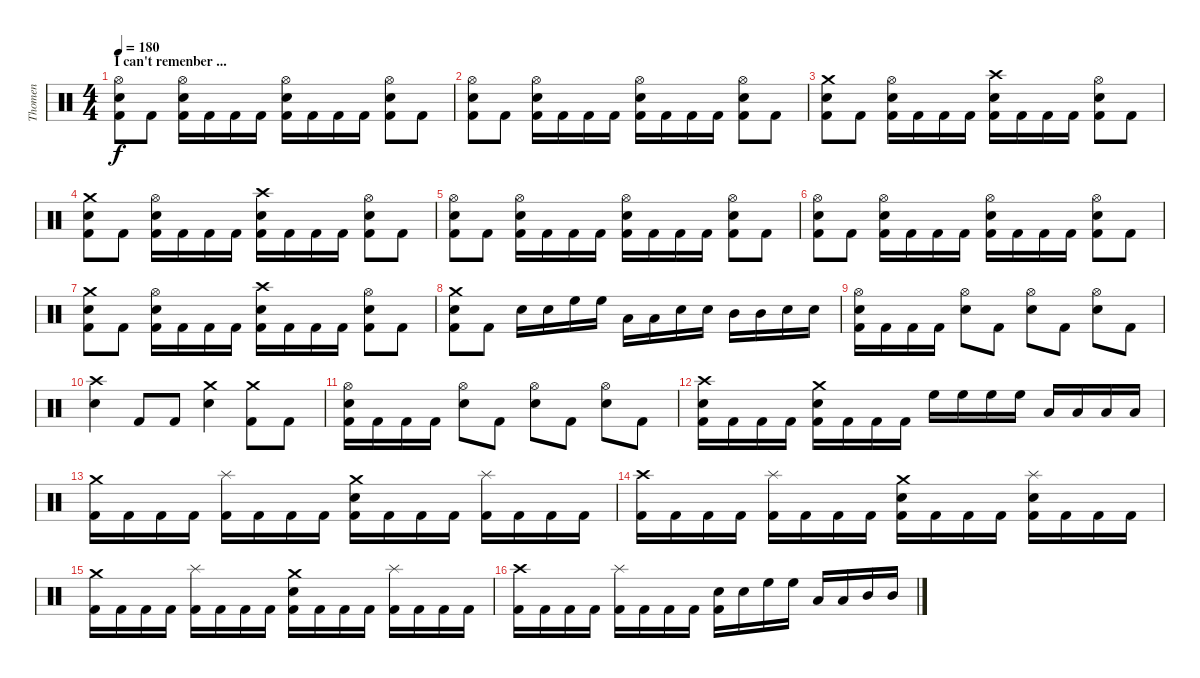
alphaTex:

\track ("Thomen" "Thomen") {instrument percussion}
\staff {score}
\articulation defaults
\ts (4 4)
\section ("" "I can't remenber ...")
\tempo 180
\clef neutral
\ks c
("Kick (hit) 2" "Electric Snare (hit)" "Hi-Hat (open)").8{dy f} "Kick (hit) 2".8 ("Kick (hit) 2" "Electric Snare (hit)" "Hi-Hat (open)").16 "Kick (hit) 2".16 "Kick (hit) 2".16 "Kick (hit) 2".16 ("Kick (hit) 2" "Electric Snare (hit)" "Hi-Hat (open)").16 "Kick (hit) 2".16 "Kick (hit) 2".16 "Kick (hit) 2".16 ("Kick (hit) 2" "Electric Snare (hit)" "Hi-Hat (open)").8 "Kick (hit) 2".8 |
("Kick (hit) 2" "Electric Snare (hit)" "Hi-Hat (open)").8 "Kick (hit) 2".8 ("Kick (hit) 2" "Electric Snare (hit)" "Hi-Hat (open)").16 "Kick (hit) 2".16 "Kick (hit) 2".16 "Kick (hit) 2".16 ("Kick (hit) 2" "Electric Snare (hit)" "Hi-Hat (open)").16 "Kick (hit) 2".16 "Kick (hit) 2".16 "Kick (hit) 2".16 ("Kick (hit) 2" "Electric Snare (hit)" "Hi-Hat (open)").8 "Kick (hit) 2".8 |
("Kick (hit) 2" "Electric Snare (hit)" "Crash medium (hit)").8 "Kick (hit) 2".8 ("Kick (hit) 2" "Electric Snare (hit)" "Hi-Hat (open)").16 "Kick (hit) 2".16 "Kick (hit) 2".16 "Kick (hit) 2".16 ("Kick (hit) 2" "Electric Snare (hit)" "Crash high (hit)").16 "Kick (hit) 2".16 "Kick (hit) 2".16 "Kick (hit) 2".16 ("Kick (hit) 2" "Electric Snare (hit)" "Hi-Hat (open)").8 "Kick (hit) 2".8 |
("Kick (hit) 2" "Electric Snare (hit)" "Crash medium (hit)").8 "Kick (hit) 2".8 ("Kick (hit) 2" "Electric Snare (hit)" "Hi-Hat (open)").16 "Kick (hit) 2".16 "Kick (hit) 2".16 "Kick (hit) 2".16 ("Kick (hit) 2" "Electric Snare (hit)" "Crash high (hit)").16 "Kick (hit) 2".16 "Kick (hit) 2".16 "Kick (hit) 2".16 ("Kick (hit) 2" "Electric Snare (hit)" "Hi-Hat (open)").8 "Kick (hit) 2".8 |
("Kick (hit) 2" "Electric Snare (hit)" "Hi-Hat (open)").8 "Kick (hit) 2".8 ("Kick (hit) 2" "Electric Snare (hit)" "Hi-Hat (open)").16 "Kick (hit) 2".16 "Kick (hit) 2".16 "Kick (hit) 2".16 ("Kick (hit) 2" "Electric Snare (hit)" "Hi-Hat (open)").16 "Kick (hit) 2".16 "Kick (hit) 2".16 "Kick (hit) 2".16 ("Kick (hit) 2" "Electric Snare (hit)" "Hi-Hat (open)").8 "Kick (hit) 2".8 |
("Kick (hit) 2" "Electric Snare (hit)" "Hi-Hat (open)").8 "Kick (hit) 2".8 ("Kick (hit) 2" "Electric Snare (hit)" "Hi-Hat (open)").16 "Kick (hit) 2".16 "Kick (hit) 2".16 "Kick (hit) 2".16 ("Kick (hit) 2" "Electric Snare (hit)" "Hi-Hat (open)").16 "Kick (hit) 2".16 "Kick (hit) 2".16 "Kick (hit) 2".16 ("Kick (hit) 2" "Electric Snare (hit)" "Hi-Hat (open)").8 "Kick (hit) 2".8 |
("Kick (hit) 2" "Electric Snare (hit)" "Crash medium (hit)").8 "Kick (hit) 2".8 ("Kick (hit) 2" "Electric Snare (hit)" "Hi-Hat (open)").16 "Kick (hit) 2".16 "Kick (hit) 2".16 "Kick (hit) 2".16 ("Kick (hit) 2" "Electric Snare (hit)" "Crash high (hit)").16 "Kick (hit) 2".16 "Kick (hit) 2".16 "Kick (hit) 2".16 ("Kick (hit) 2" "Electric Snare (hit)" "Hi-Hat (open)").8 "Kick (hit) 2".8 |
("Kick (hit) 2" "Electric Snare (hit)" "Crash medium (hit)").8 "Kick (hit) 2".8 "Electric Snare (hit)".16 "Electric Snare (hit)".16 "High Floor Tom (hit)".16 "High Floor Tom (hit)".16 "Low Tom (hit)".16 "Low Tom (hit)".16 "Electric Snare (hit)".16 "Electric Snare (hit)".16 "Mid Tom (hit)".16 "Mid Tom (hit)".16 "Electric Snare (hit)".16 "Electric Snare (hit)".16 |
("Kick (hit) 2" "Electric Snare (hit)" "Hi-Hat (open)").16 "Kick (hit) 2".16 "Kick (hit) 2".16 "Kick (hit) 2".16 ("Electric Snare (hit)" "Hi-Hat (open)").8 "Kick (hit) 2".8 ("Electric Snare (hit)" "Hi-Hat (open)").8 "Kick (hit) 2".8 ("Electric Snare (hit)" "Hi-Hat (open)").8 "Kick (hit) 2".8 |
("Electric Snare (hit)" "Crash high (hit)").4 "Kick (hit) 2".8 "Kick (hit) 2".8 ("Electric Snare (hit)" "Crash medium (hit)").4 ("Kick (hit) 2" "Crash medium (hit)").8 "Kick (hit) 2".8 |
("Kick (hit) 2" "Electric Snare (hit)" "Hi-Hat (open)").16 "Kick (hit) 2".16 "Kick (hit) 2".16 "Kick (hit) 2".16 ("Electric Snare (hit)" "Hi-Hat (open)").8 "Kick (hit) 2".8 ("Electric Snare (hit)" "Hi-Hat (open)").8 "Kick (hit) 2".8 ("Electric Snare (hit)" "Hi-Hat (open)").8 "Kick (hit) 2".8 |
("Kick (hit) 2" "Electric Snare (hit)" "Crash high (hit)").16 "Kick (hit) 2".16 "Kick (hit) 2".16 "Kick (hit) 2".16 ("Kick (hit) 2" "Electric Snare (hit)" "Crash medium (hit)").16 "Kick (hit) 2".16 "Kick (hit) 2".16 "Kick (hit) 2".16 "High Floor Tom (hit)".16 "High Floor Tom (hit)".16 "High Floor Tom (hit)".16 "High Floor Tom (hit)".16 "Low Tom (hit)".16 "Low Tom (hit)".16 "Low Tom (hit)".16 "Low Tom (hit)".16 |
("Kick (hit) 2" "Crash medium (hit)").16 "Kick (hit) 2".16 "Kick (hit) 2".16 "Kick (hit) 2".16 ("Kick (hit) 2" "Splash (hit)").16 "Kick (hit) 2".16 "Kick (hit) 2".16 "Kick (hit) 2".16 ("Kick (hit) 2" "Electric Snare (hit)" "Crash medium (hit)").16 "Kick (hit) 2".16 "Kick (hit) 2".16 "Kick (hit) 2".16 ("Kick (hit) 2" "Splash (hit)").16 "Kick (hit) 2".16 "Kick (hit) 2".16 "Kick (hit) 2".16 |
("Kick (hit) 2" "Crash high (hit)").16 "Kick (hit) 2".16 "Kick (hit) 2".16 "Kick (hit) 2".16 ("Kick (hit) 2" "Splash (hit)").16 "Kick (hit) 2".16 "Kick (hit) 2".16 "Kick (hit) 2".16 ("Kick (hit) 2" "Electric Snare (hit)" "Crash medium (hit)").16 "Kick (hit) 2".16 "Kick (hit) 2".16 "Kick (hit) 2".16 ("Kick (hit) 2" "Electric Snare (hit)" "Splash (hit)").16 "Kick (hit) 2".16 "Kick (hit) 2".16 "Kick (hit) 2".16 |
("Kick (hit) 2" "Crash medium (hit)").16 "Kick (hit) 2".16 "Kick (hit) 2".16 "Kick (hit) 2".16 ("Kick (hit) 2" "Splash (hit)").16 "Kick (hit) 2".16 "Kick (hit) 2".16 "Kick (hit) 2".16 ("Kick (hit) 2" "Electric Snare (hit)" "Crash medium (hit)").16 "Kick (hit) 2".16 "Kick (hit) 2".16 "Kick (hit) 2".16 ("Kick (hit) 2" "Splash (hit)").16 "Kick (hit) 2".16 "Kick (hit) 2".16 "Kick (hit) 2".16 |
("Kick (hit) 2" "Crash high (hit)").16 "Kick (hit) 2".16 "Kick (hit) 2".16 "Kick (hit) 2".16 ("Kick (hit) 2" "Splash (hit)").16 "Kick (hit) 2".16 "Kick (hit) 2".16 "Kick (hit) 2".16 ("Kick (hit) 2" "Electric Snare (hit)").16 "Electric Snare (hit)".16 "High Floor Tom (hit)".16 "High Floor Tom (hit)".16 "Low Tom (hit)".16 "Low Tom (hit)".16 "Mid Tom (hit)".16 "Mid Tom (hit)".16
